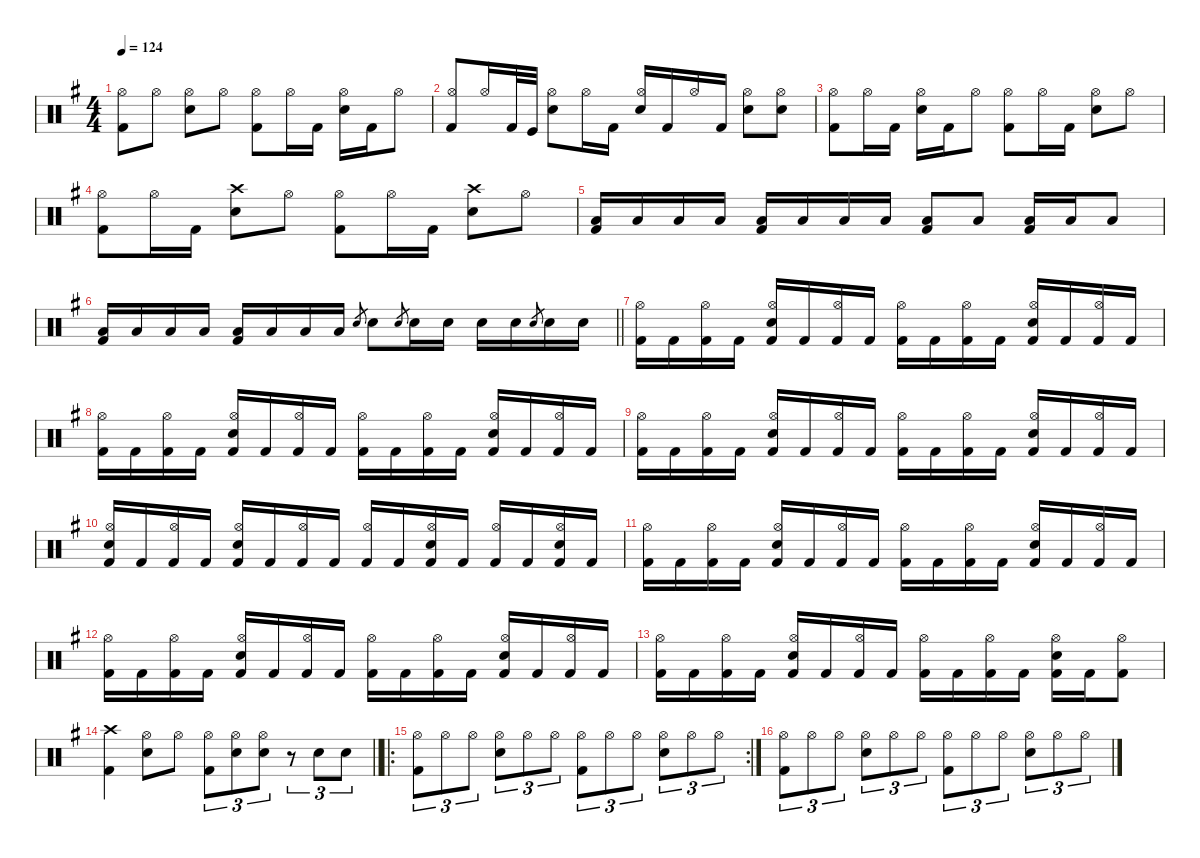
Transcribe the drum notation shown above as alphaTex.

\defaultSystemsLayout 4
\hideDynamics
\bracketExtendMode nobrackets
\singleTrackTrackNamePolicy hidden
\multiTrackTrackNamePolicy hidden
\otherSystemsTrackNameOrientation horizontal
\track ("Drums" "drm.") {defaultSystemsLayout 4 instrument percussion}
\staff {score}
\articulation defaults
\ts (4 4)
\tempo 124
\clef neutral
\ks eminor
("Hi-Hat (open)"{acc forcenatural} "Kick (hit) 2"{acc forcenatural}).8{dy mf beam Down} "Hi-Hat (open)"{acc forcenatural}.8{beam Down} ("Hi-Hat (open)"{acc forcenatural} "Snare (hit) 2"{acc forcenatural}).8{beam Down} "Hi-Hat (open)"{acc forcenatural}.8{beam Down} ("Hi-Hat (open)"{acc forcenatural} "Kick (hit) 2"{acc forcenatural}).8{beam Down} "Hi-Hat (open)"{acc forcenatural}.16{beam Down} "Kick (hit) 2"{acc forcenatural}.16{dy ff beam Down} ("Hi-Hat (open)"{acc forcenatural} "Snare (hit) 2"{acc forcenatural}).16{dy mf beam Down} "Kick (hit) 2"{acc forcenatural}.16{dy ff beam Down} "Hi-Hat (open)"{acc forcenatural}.8{dy mf beam Down} |
("Hi-Hat (open)"{acc forcenatural} "Kick (hit) 2"{acc forcenatural}).8{beam Up} "Hi-Hat (open)"{acc forcenatural}.16{beam Up} "Kick (hit) 2"{acc forcenatural}.32{dy ff beam Up} "Kick (hit)"{acc forcenatural}.32{beam Up} ("Hi-Hat (open)"{acc forcenatural} "Snare (hit) 2"{acc forcenatural}).8{dy mf beam Down} "Hi-Hat (open)"{acc forcenatural}.16{beam Down} "Kick (hit) 2"{acc forcenatural}.16{dy ff beam Down} ("Hi-Hat (open)"{acc forcenatural} "Snare (hit) 2"{acc forcenatural}).16{dy mf beam Up} "Kick (hit) 2"{acc forcenatural}.16{dy ff beam Up} "Hi-Hat (open)"{acc forcenatural}.16{dy mf beam Up} "Kick (hit) 2"{acc forcenatural}.16{dy ff beam Up} ("Hi-Hat (open)"{acc forcenatural} "Snare (hit) 2"{acc forcenatural}).8{dy mf beam Down} ("Hi-Hat (open)"{acc forcenatural} "Snare (hit) 2"{acc forcenatural}).8{beam Down} |
("Hi-Hat (open)"{acc forcenatural} "Kick (hit) 2"{acc forcenatural}).8{beam Down} "Hi-Hat (open)"{acc forcenatural}.16{beam Down} "Kick (hit) 2"{acc forcenatural}.16{dy ff beam Down} ("Hi-Hat (open)"{acc forcenatural} "Snare (hit) 2"{acc forcenatural}).16{dy mf beam Down} "Kick (hit) 2"{acc forcenatural}.16{dy ff beam Down} "Hi-Hat (open)"{acc forcenatural}.8{dy mf beam Down} ("Hi-Hat (open)"{acc forcenatural} "Kick (hit) 2"{acc forcenatural}).8{beam Down} "Hi-Hat (open)"{acc forcenatural}.16{beam Down} "Kick (hit) 2"{acc forcenatural}.16{dy ff beam Down} ("Hi-Hat (open)"{acc forcenatural} "Snare (hit) 2"{acc forcenatural}).8{dy mf beam Down} "Hi-Hat (open)"{acc forcenatural}.8{beam Down} |
("Hi-Hat (open)"{acc forcenatural} "Kick (hit) 2"{acc forcenatural}).8{beam Down} "Hi-Hat (open)"{acc forcenatural}.16{beam Down} "Kick (hit) 2"{acc forcenatural}.16{dy ff beam Down} ("Crash high (hit)"{acc forcenatural} "Snare (hit) 2"{acc forcenatural}).8{dy mf beam Down} "Hi-Hat (open)"{acc forcenatural}.8{beam Down} ("Hi-Hat (open)"{acc forcenatural} "Kick (hit) 2"{acc forcenatural}).8{beam Down} "Hi-Hat (open)"{acc forcenatural}.16{beam Down} "Kick (hit) 2"{acc forcenatural}.16{dy ff beam Down} ("Crash high (hit)"{acc forcenatural} "Snare (hit) 2"{acc forcenatural}).8{dy mf beam Down} "Hi-Hat (open)"{acc forcenatural}.8{beam Down} |
("Low Floor Tom (hit)"{acc forcenatural} "Kick (hit) 2"{acc forcenatural}).16{beam Up} "Low Floor Tom (hit)"{acc forcenatural}.16{dy mp beam Up} "Low Floor Tom (hit)"{acc forcenatural}.16{dy mf beam Up} "Low Floor Tom (hit)"{acc forcenatural}.16{dy mp beam Up} ("Low Floor Tom (hit)"{acc forcenatural} "Kick (hit) 2"{acc forcenatural}).16{dy mf beam Up} "Low Floor Tom (hit)"{acc forcenatural}.16{dy mp beam Up} "Low Floor Tom (hit)"{acc forcenatural}.16{dy mf beam Up} "Low Floor Tom (hit)"{acc forcenatural}.16{dy p beam Up} ("Low Floor Tom (hit)"{acc forcenatural} "Kick (hit) 2"{acc forcenatural}).8{dy mf beam Up} "Low Floor Tom (hit)"{acc forcenatural}.8{beam Up} ("Low Floor Tom (hit)"{acc forcenatural} "Kick (hit) 2"{acc forcenatural}).16{beam Up} "Low Floor Tom (hit)"{acc forcenatural}.16{dy mp beam Up} "Low Floor Tom (hit)"{acc forcenatural}.8{dy mf beam Up} |
\barLineRight lightlight
("Low Floor Tom (hit)"{acc forcenatural} "Kick (hit) 2"{acc forcenatural}).16{beam Up} "Low Floor Tom (hit)"{acc forcenatural}.16{dy mp beam Up} "Low Floor Tom (hit)"{acc forcenatural}.16{dy mf beam Up} "Low Floor Tom (hit)"{acc forcenatural}.16{dy mp beam Up} ("Low Floor Tom (hit)"{acc forcenatural} "Kick (hit) 2"{acc forcenatural}).16{dy mf beam Up} "Low Floor Tom (hit)"{acc forcenatural}.16{dy mp beam Up} "Low Floor Tom (hit)"{acc forcenatural}.16{dy mf beam Up} "Low Floor Tom (hit)"{acc forcenatural}.16{dy p beam Up} "Electric Snare (hit)"{acc forcenatural}.8{gr dy mp beam Up} "Snare (hit) 2"{acc forcenatural}.8{dy f beam Down} "Electric Snare (hit)"{acc forcenatural}.8{gr dy mp beam Up} "Snare (hit) 2"{acc forcenatural}.16{dy f beam Down} "Snare (hit) 2"{acc forcenatural}.16{beam Down} "Snare (hit) 2"{acc forcenatural}.16{beam Down} "Snare (hit) 2"{acc forcenatural}.16{beam Down} "Electric Snare (hit)"{acc forcenatural}.8{gr dy mp beam Up} "Snare (hit) 2"{acc forcenatural}.16{dy ff beam Down} "Snare (hit) 2"{acc forcenatural}.16{beam Down} |
("Hi-Hat (open)"{acc forcenatural} "Kick (hit) 2"{acc forcenatural}).16{dy mf beam Down} "Kick (hit) 2"{acc forcenatural}.16{dy ff beam Down} ("Hi-Hat (open)"{acc forcenatural} "Kick (hit) 2"{acc forcenatural}).16{dy mf beam Down} "Kick (hit) 2"{acc forcenatural}.16{dy ff beam Down} ("Hi-Hat (open)"{acc forcenatural} "Snare (hit) 2"{acc forcenatural} "Kick (hit) 2"{acc forcenatural}).16{dy mf beam Up} "Kick (hit) 2"{acc forcenatural}.16{dy ff beam Up} ("Hi-Hat (open)"{acc forcenatural} "Kick (hit) 2"{acc forcenatural}).16{dy mf beam Up} "Kick (hit) 2"{acc forcenatural}.16{dy ff beam Up} ("Hi-Hat (open)"{acc forcenatural} "Kick (hit) 2"{acc forcenatural}).16{dy mf beam Down} "Kick (hit) 2"{acc forcenatural}.16{dy ff beam Down} ("Hi-Hat (open)"{acc forcenatural} "Kick (hit) 2"{acc forcenatural}).16{dy mf beam Down} "Kick (hit) 2"{acc forcenatural}.16{dy ff beam Down} ("Hi-Hat (open)"{acc forcenatural} "Snare (hit) 2"{acc forcenatural} "Kick (hit) 2"{acc forcenatural}).16{dy mf beam Up} "Kick (hit) 2"{acc forcenatural}.16{dy ff beam Up} ("Hi-Hat (open)"{acc forcenatural} "Kick (hit) 2"{acc forcenatural}).16{dy mf beam Up} "Kick (hit) 2"{acc forcenatural}.16{dy ff beam Up} |
("Hi-Hat (open)"{acc forcenatural} "Kick (hit) 2"{acc forcenatural}).16{dy mf beam Down} "Kick (hit) 2"{acc forcenatural}.16{dy ff beam Down} ("Hi-Hat (open)"{acc forcenatural} "Kick (hit) 2"{acc forcenatural}).16{dy mf beam Down} "Kick (hit) 2"{acc forcenatural}.16{dy ff beam Down} ("Hi-Hat (open)"{acc forcenatural} "Snare (hit) 2"{acc forcenatural} "Kick (hit) 2"{acc forcenatural}).16{dy mf beam Up} "Kick (hit) 2"{acc forcenatural}.16{dy ff beam Up} ("Hi-Hat (open)"{acc forcenatural} "Kick (hit) 2"{acc forcenatural}).16{dy mf beam Up} "Kick (hit) 2"{acc forcenatural}.16{dy ff beam Up} ("Hi-Hat (open)"{acc forcenatural} "Kick (hit) 2"{acc forcenatural}).16{dy mf beam Down} "Kick (hit) 2"{acc forcenatural}.16{dy ff beam Down} ("Hi-Hat (open)"{acc forcenatural} "Kick (hit) 2"{acc forcenatural}).16{dy mf beam Down} "Kick (hit) 2"{acc forcenatural}.16{dy ff beam Down} ("Hi-Hat (open)"{acc forcenatural} "Snare (hit) 2"{acc forcenatural} "Kick (hit) 2"{acc forcenatural}).16{dy mf beam Up} "Kick (hit) 2"{acc forcenatural}.16{dy ff beam Up} ("Hi-Hat (open)"{acc forcenatural} "Kick (hit) 2"{acc forcenatural}).16{dy mf beam Up} "Kick (hit) 2"{acc forcenatural}.16{dy ff beam Up} |
("Hi-Hat (open)"{acc forcenatural} "Kick (hit) 2"{acc forcenatural}).16{dy mf beam Down} "Kick (hit) 2"{acc forcenatural}.16{dy ff beam Down} ("Hi-Hat (open)"{acc forcenatural} "Kick (hit) 2"{acc forcenatural}).16{dy mf beam Down} "Kick (hit) 2"{acc forcenatural}.16{dy ff beam Down} ("Hi-Hat (open)"{acc forcenatural} "Snare (hit) 2"{acc forcenatural} "Kick (hit) 2"{acc forcenatural}).16{dy mf beam Up} "Kick (hit) 2"{acc forcenatural}.16{dy ff beam Up} ("Hi-Hat (open)"{acc forcenatural} "Kick (hit) 2"{acc forcenatural}).16{dy mf beam Up} "Kick (hit) 2"{acc forcenatural}.16{dy ff beam Up} ("Hi-Hat (open)"{acc forcenatural} "Kick (hit) 2"{acc forcenatural}).16{dy mf beam Down} "Kick (hit) 2"{acc forcenatural}.16{dy ff beam Down} ("Hi-Hat (open)"{acc forcenatural} "Kick (hit) 2"{acc forcenatural}).16{dy mf beam Down} "Kick (hit) 2"{acc forcenatural}.16{dy ff beam Down} ("Hi-Hat (open)"{acc forcenatural} "Snare (hit) 2"{acc forcenatural} "Kick (hit) 2"{acc forcenatural}).16{dy mf beam Up} "Kick (hit) 2"{acc forcenatural}.16{dy ff beam Up} ("Hi-Hat (open)"{acc forcenatural} "Kick (hit) 2"{acc forcenatural}).16{dy mf beam Up} "Kick (hit) 2"{acc forcenatural}.16{dy ff beam Up} |
("Hi-Hat (open)"{acc forcenatural} "Snare (hit) 2"{acc forcenatural} "Kick (hit) 2"{acc forcenatural}).16{dy mf beam Up} "Kick (hit) 2"{acc forcenatural}.16{dy ff beam Up} ("Hi-Hat (open)"{acc forcenatural} "Kick (hit) 2"{acc forcenatural}).16{dy mf beam Up} "Kick (hit) 2"{acc forcenatural}.16{dy ff beam Up} ("Hi-Hat (open)"{acc forcenatural} "Snare (hit) 2"{acc forcenatural} "Kick (hit) 2"{acc forcenatural}).16{dy mf beam Up} "Kick (hit) 2"{acc forcenatural}.16{dy ff beam Up} ("Hi-Hat (open)"{acc forcenatural} "Kick (hit) 2"{acc forcenatural}).16{dy mf beam Up} "Kick (hit) 2"{acc forcenatural}.16{dy ff beam Up} ("Hi-Hat (open)"{acc forcenatural} "Kick (hit) 2"{acc forcenatural}).16{dy mf beam Up} "Kick (hit) 2"{acc forcenatural}.16{dy ff beam Up} ("Hi-Hat (open)"{acc forcenatural} "Snare (hit) 2"{acc forcenatural} "Kick (hit) 2"{acc forcenatural}).16{dy mf beam Up} "Kick (hit) 2"{acc forcenatural}.16{dy ff beam Up} ("Hi-Hat (open)"{acc forcenatural} "Kick (hit) 2"{acc forcenatural}).16{dy mf beam Up} "Kick (hit) 2"{acc forcenatural}.16{dy ff beam Up} ("Hi-Hat (open)"{acc forcenatural} "Snare (hit) 2"{acc forcenatural} "Kick (hit) 2"{acc forcenatural}).16{dy mf beam Up} "Kick (hit) 2"{acc forcenatural}.16{dy ff beam Up} |
("Hi-Hat (open)"{acc forcenatural} "Kick (hit) 2"{acc forcenatural}).16{dy mf beam Down} "Kick (hit) 2"{acc forcenatural}.16{dy ff beam Down} ("Hi-Hat (open)"{acc forcenatural} "Kick (hit) 2"{acc forcenatural}).16{dy mf beam Down} "Kick (hit) 2"{acc forcenatural}.16{dy ff beam Down} ("Hi-Hat (open)"{acc forcenatural} "Snare (hit) 2"{acc forcenatural} "Kick (hit) 2"{acc forcenatural}).16{dy mf beam Up} "Kick (hit) 2"{acc forcenatural}.16{dy ff beam Up} ("Hi-Hat (open)"{acc forcenatural} "Kick (hit) 2"{acc forcenatural}).16{dy mf beam Up} "Kick (hit) 2"{acc forcenatural}.16{dy ff beam Up} ("Hi-Hat (open)"{acc forcenatural} "Kick (hit) 2"{acc forcenatural}).16{dy mf beam Down} "Kick (hit) 2"{acc forcenatural}.16{dy ff beam Down} ("Hi-Hat (open)"{acc forcenatural} "Kick (hit) 2"{acc forcenatural}).16{dy mf beam Down} "Kick (hit) 2"{acc forcenatural}.16{dy ff beam Down} ("Hi-Hat (open)"{acc forcenatural} "Snare (hit) 2"{acc forcenatural} "Kick (hit) 2"{acc forcenatural}).16{dy mf beam Up} "Kick (hit) 2"{acc forcenatural}.16{dy ff beam Up} ("Hi-Hat (open)"{acc forcenatural} "Kick (hit) 2"{acc forcenatural}).16{dy mf beam Up} "Kick (hit) 2"{acc forcenatural}.16{dy ff beam Up} |
("Hi-Hat (open)"{acc forcenatural} "Kick (hit) 2"{acc forcenatural}).16{dy mf beam Down} "Kick (hit) 2"{acc forcenatural}.16{dy ff beam Down} ("Hi-Hat (open)"{acc forcenatural} "Kick (hit) 2"{acc forcenatural}).16{dy mf beam Down} "Kick (hit) 2"{acc forcenatural}.16{dy ff beam Down} ("Hi-Hat (open)"{acc forcenatural} "Snare (hit) 2"{acc forcenatural} "Kick (hit) 2"{acc forcenatural}).16{dy mf beam Up} "Kick (hit) 2"{acc forcenatural}.16{dy ff beam Up} ("Hi-Hat (open)"{acc forcenatural} "Kick (hit) 2"{acc forcenatural}).16{dy mf beam Up} "Kick (hit) 2"{acc forcenatural}.16{dy ff beam Up} ("Hi-Hat (open)"{acc forcenatural} "Kick (hit) 2"{acc forcenatural}).16{dy mf beam Down} "Kick (hit) 2"{acc forcenatural}.16{dy ff beam Down} ("Hi-Hat (open)"{acc forcenatural} "Kick (hit) 2"{acc forcenatural}).16{dy mf beam Down} "Kick (hit) 2"{acc forcenatural}.16{dy ff beam Down} ("Hi-Hat (open)"{acc forcenatural} "Snare (hit) 2"{acc forcenatural} "Kick (hit) 2"{acc forcenatural}).16{dy mf beam Up} "Kick (hit) 2"{acc forcenatural}.16{dy ff beam Up} ("Hi-Hat (open)"{acc forcenatural} "Kick (hit) 2"{acc forcenatural}).16{dy mf beam Up} "Kick (hit) 2"{acc forcenatural}.16{dy ff beam Up} |
("Hi-Hat (open)"{acc forcenatural} "Kick (hit) 2"{acc forcenatural}).16{dy mf beam Down} "Kick (hit) 2"{acc forcenatural}.16{dy ff beam Down} ("Hi-Hat (open)"{acc forcenatural} "Kick (hit) 2"{acc forcenatural}).16{dy mf beam Down} "Kick (hit) 2"{acc forcenatural}.16{dy ff beam Down} ("Hi-Hat (open)"{acc forcenatural} "Snare (hit) 2"{acc forcenatural} "Kick (hit) 2"{acc forcenatural}).16{dy mf beam Up} "Kick (hit) 2"{acc forcenatural}.16{dy ff beam Up} ("Hi-Hat (open)"{acc forcenatural} "Kick (hit) 2"{acc forcenatural}).16{dy mf beam Up} "Kick (hit) 2"{acc forcenatural}.16{dy ff beam Up} ("Hi-Hat (open)"{acc forcenatural} "Kick (hit) 2"{acc forcenatural}).16{dy mf beam Down} "Kick (hit) 2"{acc forcenatural}.16{dy ff beam Down} ("Hi-Hat (open)"{acc forcenatural} "Kick (hit) 2"{acc forcenatural}).16{dy mf beam Down} "Kick (hit) 2"{acc forcenatural}.16{dy ff beam Down} ("Hi-Hat (open)"{acc forcenatural} "Snare (hit) 2"{acc forcenatural} "Kick (hit) 2"{acc forcenatural}).16{dy mf beam Down} "Kick (hit) 2"{acc forcenatural}.16{dy ff beam Down} ("Hi-Hat (open)"{acc forcenatural} "Kick (hit) 2"{acc forcenatural}).8{dy mf beam Down} |
\barLineRight lightlight
("Crash high (hit)"{acc forcenatural} "Kick (hit) 2"{acc forcenatural}).4{dy f beam Down} ("Hi-Hat (open)"{acc forcenatural} "Snare (hit) 2"{acc forcenatural}).8{beam Down} "Hi-Hat (open)"{acc forcenatural}.8{beam Down} ("Hi-Hat (open)"{acc forcenatural} "Kick (hit) 2"{acc forcenatural}).8{tu (3 2) beam Down} ("Hi-Hat (open)"{acc forcenatural} "Snare (hit) 2"{acc forcenatural}).8{tu (3 2) beam Down} ("Hi-Hat (open)"{acc forcenatural} "Snare (hit) 2"{acc forcenatural}).8{tu (3 2) beam Down} r.8{tu (3 2) beam Down} "Snare (hit) 2"{acc forcenatural}.8{tu (3 2) dy ff beam Down} "Snare (hit) 2"{acc forcenatural}.8{tu (3 2) beam Down} |
\ro
\rc 2
("Hi-Hat (open)"{acc forcenatural} "Kick (hit) 2"{acc forcenatural}).8{tu (3 2) dy mf beam Down} "Hi-Hat (open)"{acc forcenatural}.8{tu (3 2) beam Down} "Hi-Hat (open)"{acc forcenatural}.8{tu (3 2) beam Down} ("Hi-Hat (open)"{acc forcenatural} "Snare (hit) 2"{acc forcenatural}).8{tu (3 2) beam Down} "Hi-Hat (open)"{acc forcenatural}.8{tu (3 2) beam Down} "Hi-Hat (open)"{acc forcenatural}.8{tu (3 2) beam Down} ("Hi-Hat (open)"{acc forcenatural} "Kick (hit) 2"{acc forcenatural}).8{tu (3 2) beam Down} "Hi-Hat (open)"{acc forcenatural}.8{tu (3 2) beam Down} "Hi-Hat (open)"{acc forcenatural}.8{tu (3 2) beam Down} ("Hi-Hat (open)"{acc forcenatural} "Snare (hit) 2"{acc forcenatural}).8{tu (3 2) beam Down} "Hi-Hat (open)"{acc forcenatural}.8{tu (3 2) beam Down} "Hi-Hat (open)"{acc forcenatural}.8{tu (3 2) beam Down} |
("Hi-Hat (open)"{acc forcenatural} "Kick (hit) 2"{acc forcenatural}).8{tu (3 2) beam Down} "Hi-Hat (open)"{acc forcenatural}.8{tu (3 2) beam Down} "Hi-Hat (open)"{acc forcenatural}.8{tu (3 2) beam Down} ("Hi-Hat (open)"{acc forcenatural} "Snare (hit) 2"{acc forcenatural}).8{tu (3 2) beam Down} "Hi-Hat (open)"{acc forcenatural}.8{tu (3 2) beam Down} "Hi-Hat (open)"{acc forcenatural}.8{tu (3 2) beam Down} ("Hi-Hat (open)"{acc forcenatural} "Kick (hit) 2"{acc forcenatural}).8{tu (3 2) beam Down} "Hi-Hat (open)"{acc forcenatural}.8{tu (3 2) beam Down} "Hi-Hat (open)"{acc forcenatural}.8{tu (3 2) beam Down} ("Hi-Hat (open)"{acc forcenatural} "Snare (hit) 2"{acc forcenatural}).8{tu (3 2) beam Down} "Hi-Hat (open)"{acc forcenatural}.8{tu (3 2) beam Down} "Hi-Hat (open)"{acc forcenatural}.8{tu (3 2) beam Down}
